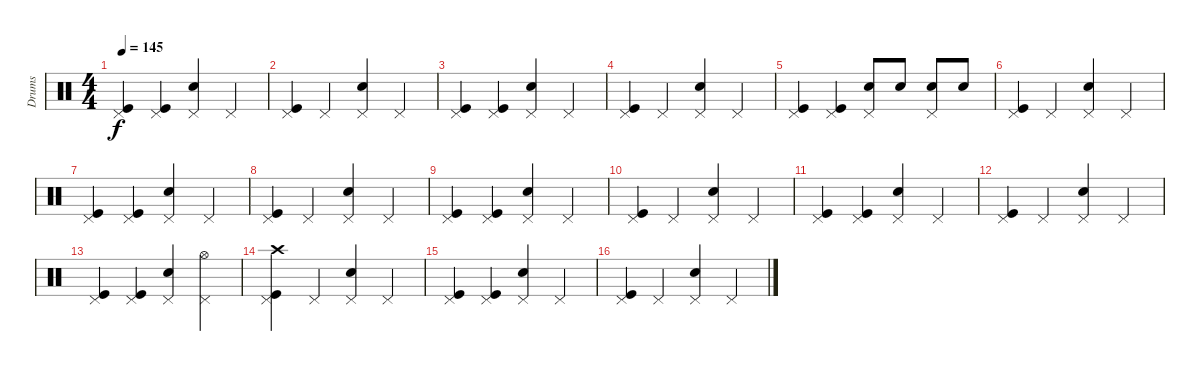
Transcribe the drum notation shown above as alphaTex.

\track ("Drums" "Drums") {instrument percussion}
\staff {score}
\articulation defaults
\ts (4 4)
\tempo 145
\clef neutral
\ks c
("Pedal Hi-Hat (hit)" "Kick (hit)").4{dy f} ("Pedal Hi-Hat (hit)" "Kick (hit)").4 ("Pedal Hi-Hat (hit)" "Snare (hit) 2").4 "Pedal Hi-Hat (hit)".4 |
("Pedal Hi-Hat (hit)" "Kick (hit)").4 "Pedal Hi-Hat (hit)".4 ("Pedal Hi-Hat (hit)" "Snare (hit) 2").4 "Pedal Hi-Hat (hit)".4 |
("Pedal Hi-Hat (hit)" "Kick (hit)").4 ("Pedal Hi-Hat (hit)" "Kick (hit)").4 ("Pedal Hi-Hat (hit)" "Snare (hit) 2").4 "Pedal Hi-Hat (hit)".4 |
("Pedal Hi-Hat (hit)" "Kick (hit)").4 "Pedal Hi-Hat (hit)".4 ("Pedal Hi-Hat (hit)" "Snare (hit) 2").4 "Pedal Hi-Hat (hit)".4 |
("Pedal Hi-Hat (hit)" "Kick (hit)").4 ("Pedal Hi-Hat (hit)" "Kick (hit)").4 ("Pedal Hi-Hat (hit)" "Snare (hit) 2").8 "Snare (hit) 2".8 ("Pedal Hi-Hat (hit)" "Snare (hit) 2").8 "Snare (hit) 2".8 |
("Pedal Hi-Hat (hit)" "Kick (hit)").4 "Pedal Hi-Hat (hit)".4 ("Pedal Hi-Hat (hit)" "Snare (hit) 2").4 "Pedal Hi-Hat (hit)".4 |
("Pedal Hi-Hat (hit)" "Kick (hit)").4 ("Pedal Hi-Hat (hit)" "Kick (hit)").4 ("Pedal Hi-Hat (hit)" "Snare (hit) 2").4 "Pedal Hi-Hat (hit)".4 |
("Pedal Hi-Hat (hit)" "Kick (hit)").4 "Pedal Hi-Hat (hit)".4 ("Pedal Hi-Hat (hit)" "Snare (hit) 2").4 "Pedal Hi-Hat (hit)".4 |
("Pedal Hi-Hat (hit)" "Kick (hit)").4 ("Pedal Hi-Hat (hit)" "Kick (hit)").4 ("Pedal Hi-Hat (hit)" "Snare (hit) 2").4 "Pedal Hi-Hat (hit)".4 |
("Pedal Hi-Hat (hit)" "Kick (hit)").4 "Pedal Hi-Hat (hit)".4 ("Pedal Hi-Hat (hit)" "Snare (hit) 2").4 "Pedal Hi-Hat (hit)".4 |
("Pedal Hi-Hat (hit)" "Kick (hit)").4 ("Pedal Hi-Hat (hit)" "Kick (hit)").4 ("Pedal Hi-Hat (hit)" "Snare (hit) 2").4 "Pedal Hi-Hat (hit)".4 |
("Pedal Hi-Hat (hit)" "Kick (hit)").4 "Pedal Hi-Hat (hit)".4 ("Pedal Hi-Hat (hit)" "Snare (hit) 2").4 "Pedal Hi-Hat (hit)".4 |
("Pedal Hi-Hat (hit)" "Kick (hit)").4 ("Pedal Hi-Hat (hit)" "Kick (hit)").4 ("Pedal Hi-Hat (hit)" "Snare (hit) 2").4 ("Pedal Hi-Hat (hit)" "Hi-Hat (open)").4 |
("Crash high (hit)" "Pedal Hi-Hat (hit)" "Kick (hit)").4 "Pedal Hi-Hat (hit)".4 ("Pedal Hi-Hat (hit)" "Snare (hit) 2").4 "Pedal Hi-Hat (hit)".4 |
("Pedal Hi-Hat (hit)" "Kick (hit)").4 ("Pedal Hi-Hat (hit)" "Kick (hit)").4 ("Pedal Hi-Hat (hit)" "Snare (hit) 2").4 "Pedal Hi-Hat (hit)".4 |
("Pedal Hi-Hat (hit)" "Kick (hit)").4 "Pedal Hi-Hat (hit)".4 ("Pedal Hi-Hat (hit)" "Snare (hit) 2").4 "Pedal Hi-Hat (hit)".4
